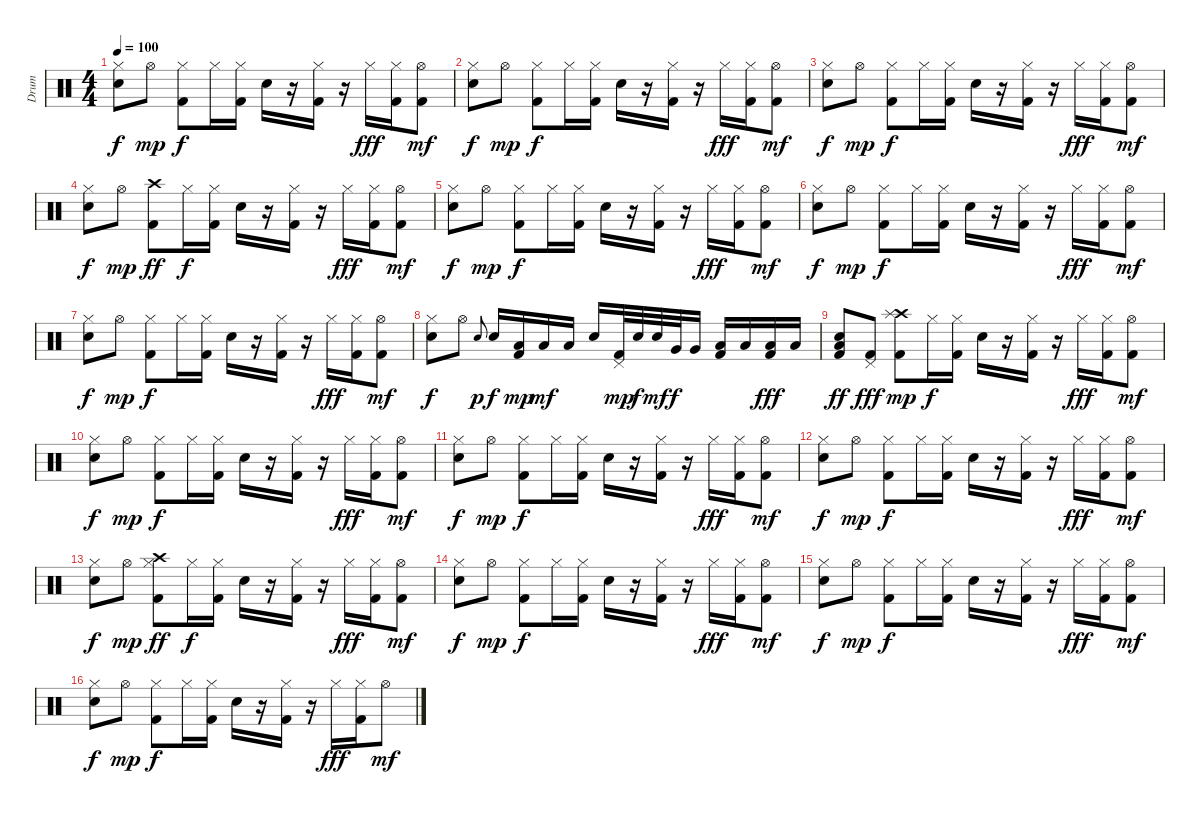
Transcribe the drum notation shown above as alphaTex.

\track ("Drum" "Drum") {instrument percussion}
\staff {score}
\articulation defaults
\ts (4 4)
\tempo 100
\clef neutral
\ks c
("Snare (hit) 2" "Hi-Hat (closed)").8{dy f} "Hi-Hat (open)".8{dy mp} ("Hi-Hat (closed)" "Kick (hit) 2").8{dy f} "Hi-Hat (closed)".16 ("Hi-Hat (closed)" "Kick (hit) 2").16 "Snare (hit) 2".16 r.16 ("Hi-Hat (closed)" "Kick (hit) 2").16 r.16 "Hi-Hat (closed)".16{dy fff} ("Hi-Hat (closed)" "Kick (hit) 2").16 ("Hi-Hat (open)" "Kick (hit) 2").8{dy mf} |
("Snare (hit) 2" "Hi-Hat (closed)").8{dy f} "Hi-Hat (open)".8{dy mp} ("Hi-Hat (closed)" "Kick (hit) 2").8{dy f} "Hi-Hat (closed)".16 ("Hi-Hat (closed)" "Kick (hit) 2").16 "Snare (hit) 2".16 r.16 ("Hi-Hat (closed)" "Kick (hit) 2").16 r.16 "Hi-Hat (closed)".16{dy fff} ("Hi-Hat (closed)" "Kick (hit) 2").16 ("Hi-Hat (open)" "Kick (hit) 2").8{dy mf} |
("Snare (hit) 2" "Hi-Hat (closed)").8{dy f} "Hi-Hat (open)".8{dy mp} ("Hi-Hat (closed)" "Kick (hit) 2").8{dy f} "Hi-Hat (closed)".16 ("Hi-Hat (closed)" "Kick (hit) 2").16 "Snare (hit) 2".16 r.16 ("Hi-Hat (closed)" "Kick (hit) 2").16 r.16 "Hi-Hat (closed)".16{dy fff} ("Hi-Hat (closed)" "Kick (hit) 2").16 ("Hi-Hat (open)" "Kick (hit) 2").8{dy mf} |
("Snare (hit) 2" "Hi-Hat (closed)").8{dy f} "Hi-Hat (open)".8{dy mp} ("Crash high (hit)" "Kick (hit) 2").8{dy ff} "Hi-Hat (closed)".16{dy f} ("Hi-Hat (closed)" "Kick (hit) 2").16 "Snare (hit) 2".16 r.16 ("Hi-Hat (closed)" "Kick (hit) 2").16 r.16 "Hi-Hat (closed)".16{dy fff} ("Hi-Hat (closed)" "Kick (hit) 2").16 ("Hi-Hat (open)" "Kick (hit) 2").8{dy mf} |
("Snare (hit) 2" "Hi-Hat (closed)").8{dy f} "Hi-Hat (open)".8{dy mp} ("Hi-Hat (closed)" "Kick (hit) 2").8{dy f} "Hi-Hat (closed)".16 ("Hi-Hat (closed)" "Kick (hit) 2").16 "Snare (hit) 2".16 r.16 ("Hi-Hat (closed)" "Kick (hit) 2").16 r.16 "Hi-Hat (closed)".16{dy fff} ("Hi-Hat (closed)" "Kick (hit) 2").16 ("Hi-Hat (open)" "Kick (hit) 2").8{dy mf} |
("Snare (hit) 2" "Hi-Hat (closed)").8{dy f} "Hi-Hat (open)".8{dy mp} ("Hi-Hat (closed)" "Kick (hit) 2").8{dy f} "Hi-Hat (closed)".16 ("Hi-Hat (closed)" "Kick (hit) 2").16 "Snare (hit) 2".16 r.16 ("Hi-Hat (closed)" "Kick (hit) 2").16 r.16 "Hi-Hat (closed)".16{dy fff} ("Hi-Hat (closed)" "Kick (hit) 2").16 ("Hi-Hat (open)" "Kick (hit) 2").8{dy mf} |
("Snare (hit) 2" "Hi-Hat (closed)").8{dy f} "Hi-Hat (open)".8{dy mp} ("Hi-Hat (closed)" "Kick (hit) 2").8{dy f} "Hi-Hat (closed)".16 ("Hi-Hat (closed)" "Kick (hit) 2").16 "Snare (hit) 2".16 r.16 ("Hi-Hat (closed)" "Kick (hit) 2").16 r.16 "Hi-Hat (closed)".16{dy fff} ("Hi-Hat (closed)" "Kick (hit) 2").16 ("Hi-Hat (open)" "Kick (hit) 2").8{dy mf} |
("Snare (hit) 2" "Hi-Hat (closed)").8{dy f} "Hi-Hat (open)".8 "Snare (hit) 2".8{gr onbeat dy p} "Snare (hit) 2".16{dy f} ("Low Floor Tom (hit)" "Kick (hit) 2").16{dy mp} "Low Floor Tom (hit)".16{dy mf} "Low Floor Tom (hit)".16 "Snare (hit) 2".16 ("Pedal Hi-Hat (hit)" "Kick (hit) 2").32{dy mp} "Snare (hit) 2".32{dy f} "Snare (hit) 2".32{dy mf} "Very Low Tom (hit)".32{dy f} "Very Low Tom (hit)".16 ("Low Floor Tom (hit)" "Kick (hit) 2").16 "Low Floor Tom (hit)".16 ("Low Floor Tom (hit)" "Kick (hit) 2").16{dy fff} "Low Floor Tom (hit)".16 |
("Snare (hit) 2" "Low Floor Tom (hit)" "Kick (hit) 2").8{dy ff} ("Pedal Hi-Hat (hit)" "Kick (hit) 2").8{dy fff} ("Crash high (hit)" "Splash (hit)" "Kick (hit) 2").8{dy mp} "Hi-Hat (closed)".16{dy f} ("Hi-Hat (closed)" "Kick (hit) 2").16 "Snare (hit) 2".16 r.16 ("Hi-Hat (closed)" "Kick (hit) 2").16 r.16 "Hi-Hat (closed)".16{dy fff} ("Hi-Hat (closed)" "Kick (hit) 2").16 ("Hi-Hat (open)" "Kick (hit) 2").8{dy mf} |
("Snare (hit) 2" "Hi-Hat (closed)").8{dy f} "Hi-Hat (open)".8{dy mp} ("Hi-Hat (closed)" "Kick (hit) 2").8{dy f} "Hi-Hat (closed)".16 ("Hi-Hat (closed)" "Kick (hit) 2").16 "Snare (hit) 2".16 r.16 ("Hi-Hat (closed)" "Kick (hit) 2").16 r.16 "Hi-Hat (closed)".16{dy fff} ("Hi-Hat (closed)" "Kick (hit) 2").16 ("Hi-Hat (open)" "Kick (hit) 2").8{dy mf} |
("Snare (hit) 2" "Hi-Hat (closed)").8{dy f} "Hi-Hat (open)".8{dy mp} ("Hi-Hat (closed)" "Kick (hit) 2").8{dy f} "Hi-Hat (closed)".16 ("Hi-Hat (closed)" "Kick (hit) 2").16 "Snare (hit) 2".16 r.16 ("Hi-Hat (closed)" "Kick (hit) 2").16 r.16 "Hi-Hat (closed)".16{dy fff} ("Hi-Hat (closed)" "Kick (hit) 2").16 ("Hi-Hat (open)" "Kick (hit) 2").8{dy mf} |
("Snare (hit) 2" "Hi-Hat (closed)").8{dy f} "Hi-Hat (open)".8{dy mp} ("Hi-Hat (closed)" "Kick (hit) 2").8{dy f} "Hi-Hat (closed)".16 ("Hi-Hat (closed)" "Kick (hit) 2").16 "Snare (hit) 2".16 r.16 ("Hi-Hat (closed)" "Kick (hit) 2").16 r.16 "Hi-Hat (closed)".16{dy fff} ("Hi-Hat (closed)" "Kick (hit) 2").16 ("Hi-Hat (open)" "Kick (hit) 2").8{dy mf} |
("Snare (hit) 2" "Hi-Hat (closed)").8{dy f} "Hi-Hat (open)".8{dy mp} ("Crash high (hit)" "Hi-Hat (closed)" "Kick (hit) 2").8{dy ff} "Hi-Hat (closed)".16{dy f} ("Hi-Hat (closed)" "Kick (hit) 2").16 "Snare (hit) 2".16 r.16 ("Hi-Hat (closed)" "Kick (hit) 2").16 r.16 "Hi-Hat (closed)".16{dy fff} ("Hi-Hat (closed)" "Kick (hit) 2").16 ("Hi-Hat (open)" "Kick (hit) 2").8{dy mf} |
("Snare (hit) 2" "Hi-Hat (closed)").8{dy f} "Hi-Hat (open)".8{dy mp} ("Hi-Hat (closed)" "Kick (hit) 2").8{dy f} "Hi-Hat (closed)".16 ("Hi-Hat (closed)" "Kick (hit) 2").16 "Snare (hit) 2".16 r.16 ("Hi-Hat (closed)" "Kick (hit) 2").16 r.16 "Hi-Hat (closed)".16{dy fff} ("Hi-Hat (closed)" "Kick (hit) 2").16 ("Hi-Hat (open)" "Kick (hit) 2").8{dy mf} |
("Snare (hit) 2" "Hi-Hat (closed)").8{dy f} "Hi-Hat (open)".8{dy mp} ("Hi-Hat (closed)" "Kick (hit) 2").8{dy f} "Hi-Hat (closed)".16 ("Hi-Hat (closed)" "Kick (hit) 2").16 "Snare (hit) 2".16 r.16 ("Hi-Hat (closed)" "Kick (hit) 2").16 r.16 "Hi-Hat (closed)".16{dy fff} ("Hi-Hat (closed)" "Kick (hit) 2").16 ("Hi-Hat (open)" "Kick (hit) 2").8{dy mf} |
("Snare (hit) 2" "Hi-Hat (closed)").8{dy f} "Hi-Hat (open)".8{dy mp} ("Hi-Hat (closed)" "Kick (hit) 2").8{dy f} "Hi-Hat (closed)".16 ("Hi-Hat (closed)" "Kick (hit) 2").16 "Snare (hit) 2".16 r.16 ("Hi-Hat (closed)" "Kick (hit) 2").16 r.16 "Hi-Hat (closed)".16{dy fff} ("Hi-Hat (closed)" "Kick (hit) 2").16 "Hi-Hat (open)".8{dy mf}
